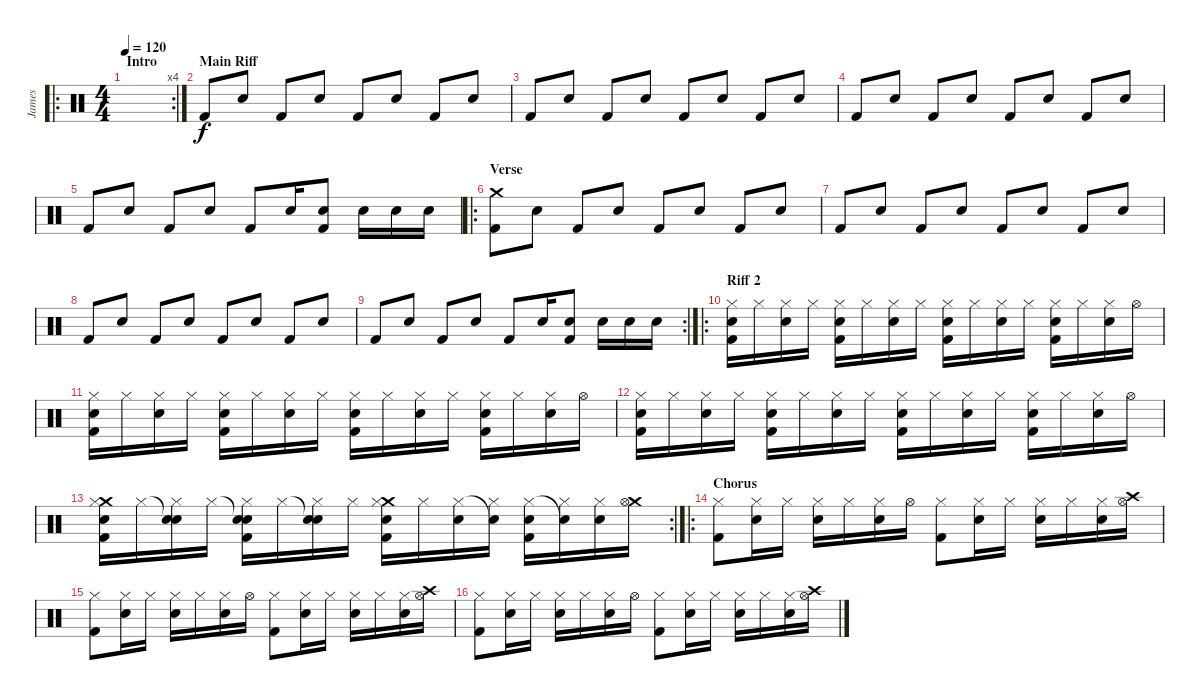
\track ("James" "James") {instrument percussion}
\staff {score}
\articulation defaults
\ro
\rc 4
\ts (4 4)
\section ("" "Intro")
\tempo 120
\clef neutral
\ks c
|
\section ("" "Main Riff")
"Kick (hit) 2".8 "Snare (hit) 2".8 "Kick (hit) 2".8 "Snare (hit) 2".8 "Kick (hit) 2".8 "Snare (hit) 2".8 "Kick (hit) 2".8 "Snare (hit) 2".8 |
"Kick (hit) 2".8 "Snare (hit) 2".8 "Kick (hit) 2".8 "Snare (hit) 2".8 "Kick (hit) 2".8 "Snare (hit) 2".8 "Kick (hit) 2".8 "Snare (hit) 2".8 |
"Kick (hit) 2".8 "Snare (hit) 2".8 "Kick (hit) 2".8 "Snare (hit) 2".8 "Kick (hit) 2".8 "Snare (hit) 2".8 "Kick (hit) 2".8 "Snare (hit) 2".8 |
"Kick (hit) 2".8 "Snare (hit) 2".8 "Kick (hit) 2".8 "Snare (hit) 2".8 "Kick (hit) 2".8 "Snare (hit) 2".16 ("Snare (hit) 2" "Kick (hit) 2").8 "Snare (hit) 2".16 "Snare (hit) 2".16 "Snare (hit) 2".16 |
\ro
\section ("" "Verse")
("Crash medium (hit)" "Kick (hit) 2").8 "Snare (hit) 2".8 "Kick (hit) 2".8 "Snare (hit) 2".8 "Kick (hit) 2".8 "Snare (hit) 2".8 "Kick (hit) 2".8 "Snare (hit) 2".8 |
"Kick (hit) 2".8 "Snare (hit) 2".8 "Kick (hit) 2".8 "Snare (hit) 2".8 "Kick (hit) 2".8 "Snare (hit) 2".8 "Kick (hit) 2".8 "Snare (hit) 2".8 |
"Kick (hit) 2".8 "Snare (hit) 2".8 "Kick (hit) 2".8 "Snare (hit) 2".8 "Kick (hit) 2".8 "Snare (hit) 2".8 "Kick (hit) 2".8 "Snare (hit) 2".8 |
\rc 2 "Kick (hit) 2".8 "Snare (hit) 2".8 "Kick (hit) 2".8 "Snare (hit) 2".8 "Kick (hit) 2".8 "Snare (hit) 2".16
("Snare (hit) 2" "Kick (hit) 2").8 "Snare (hit) 2".16 "Snare (hit) 2".16 "Snare (hit) 2".16 |
\ro
\section ("" "Riff 2")
("Hi-Hat (closed)" "Snare (hit) 2" "Kick (hit) 2").16 "Hi-Hat (closed)".16 ("Hi-Hat (closed)" "Snare (hit) 2").16 "Hi-Hat (closed)".16 ("Hi-Hat (closed)" "Snare (hit) 2" "Kick (hit) 2").16 "Hi-Hat (closed)".16 ("Hi-Hat (closed)" "Snare (hit) 2").16 "Hi-Hat (closed)".16 ("Hi-Hat (closed)" "Snare (hit) 2" "Kick (hit) 2").16 "Hi-Hat (closed)".16 ("Hi-Hat (closed)" "Snare (hit) 2").16 "Hi-Hat (closed)".16 ("Hi-Hat (closed)" "Snare (hit) 2" "Kick (hit) 2").16 "Hi-Hat (closed)".16 ("Hi-Hat (closed)" "Snare (hit) 2").16 "Hi-Hat (open)".16 |
("Hi-Hat (closed)" "Snare (hit) 2" "Kick (hit) 2").16 "Hi-Hat (closed)".16 ("Hi-Hat (closed)" "Snare (hit) 2").16 "Hi-Hat (closed)".16 ("Hi-Hat (closed)" "Snare (hit) 2" "Kick (hit) 2").16 "Hi-Hat (closed)".16 ("Hi-Hat (closed)" "Snare (hit) 2").16 "Hi-Hat (closed)".16 ("Hi-Hat (closed)" "Snare (hit) 2" "Kick (hit) 2").16 "Hi-Hat (closed)".16 ("Hi-Hat (closed)" "Snare (hit) 2").16 "Hi-Hat (closed)".16 ("Hi-Hat (closed)" "Snare (hit) 2" "Kick (hit) 2").16 "Hi-Hat (closed)".16 ("Hi-Hat (closed)" "Snare (hit) 2").16 "Hi-Hat (open)".16 |
("Hi-Hat (closed)" "Snare (hit) 2" "Kick (hit) 2").16 "Hi-Hat (closed)".16 ("Hi-Hat (closed)" "Snare (hit) 2").16 "Hi-Hat (closed)".16 ("Hi-Hat (closed)" "Snare (hit) 2" "Kick (hit) 2").16 "Hi-Hat (closed)".16 ("Hi-Hat (closed)" "Snare (hit) 2").16 "Hi-Hat (closed)".16 ("Hi-Hat (closed)" "Snare (hit) 2" "Kick (hit) 2").16 "Hi-Hat (closed)".16 ("Hi-Hat (closed)" "Snare (hit) 2").16 "Hi-Hat (closed)".16 ("Hi-Hat (closed)" "Snare (hit) 2" "Kick (hit) 2").16 "Hi-Hat (closed)".16 ("Hi-Hat (closed)" "Snare (hit) 2").16 "Hi-Hat (open)".16 |
\rc 2
("Crash medium (hit)" "Hi-Hat (closed)" "Snare (hit) 2" "Kick (hit) 2").16 "Hi-Hat (closed)".16 ("Snare (hit)"{t} "Hi-Hat (closed)" "Snare (hit) 2").16 "Hi-Hat (closed)".16 ("Snare (hit)"{t} "Hi-Hat (closed)" "Snare (hit) 2" "Kick (hit) 2").16 "Hi-Hat (closed)".16 ("Snare (hit)"{t} "Hi-Hat (closed)" "Snare (hit) 2").16 "Hi-Hat (closed)".16 ("Crash medium (hit)" "Hi-Hat (closed)" "Snare (hit) 2" "Kick (hit) 2").16 "Hi-Hat (closed)".16 ("Hi-Hat (closed)" "Snare (hit) 2").16 ("Snare (hit)"{t} "Hi-Hat (closed)").16 ("Hi-Hat (closed)" "Snare (hit) 2" "Kick (hit) 2").16 ("Snare (hit)"{t} "Hi-Hat (closed)").16 ("Hi-Hat (closed)" "Snare (hit) 2").16 ("Crash medium (hit)" "Hi-Hat (open)").16 |
\ro
\section ("" "Chorus")
("Hi-Hat (closed)" "Kick (hit) 2").8 ("Hi-Hat (closed)" "Snare (hit) 2").16 "Hi-Hat (closed)".16 ("Hi-Hat (closed)" "Snare (hit) 2").16 "Hi-Hat (closed)".16 ("Hi-Hat (closed)" "Snare (hit) 2").16 "Hi-Hat (open)".16 ("Hi-Hat (closed)" "Kick (hit) 2").8 ("Hi-Hat (closed)" "Snare (hit) 2").16 "Hi-Hat (closed)".16 ("Hi-Hat (closed)" "Snare (hit) 2").16 "Hi-Hat (closed)".16 ("Hi-Hat (closed)" "Snare (hit) 2").16 ("Crash high (hit)" "Hi-Hat (open)").16 |
("Hi-Hat (closed)" "Kick (hit) 2").8 ("Hi-Hat (closed)" "Snare (hit) 2").16 "Hi-Hat (closed)".16 ("Hi-Hat (closed)" "Snare (hit) 2").16 "Hi-Hat (closed)".16 ("Hi-Hat (closed)" "Snare (hit) 2").16 "Hi-Hat (open)".16 ("Hi-Hat (closed)" "Kick (hit) 2").8 ("Hi-Hat (closed)" "Snare (hit) 2").16 "Hi-Hat (closed)".16 ("Hi-Hat (closed)" "Snare (hit) 2").16 "Hi-Hat (closed)".16 ("Hi-Hat (closed)" "Snare (hit) 2").16 ("Crash high (hit)" "Hi-Hat (open)").16 |
("Hi-Hat (closed)" "Kick (hit) 2").8 ("Hi-Hat (closed)" "Snare (hit) 2").16 "Hi-Hat (closed)".16 ("Hi-Hat (closed)" "Snare (hit) 2").16 "Hi-Hat (closed)".16 ("Hi-Hat (closed)" "Snare (hit) 2").16 "Hi-Hat (open)".16 ("Hi-Hat (closed)" "Kick (hit) 2").8 ("Hi-Hat (closed)" "Snare (hit) 2").16 "Hi-Hat (closed)".16 ("Hi-Hat (closed)" "Snare (hit) 2").16 "Hi-Hat (closed)".16 ("Hi-Hat (closed)" "Snare (hit) 2").16 ("Crash high (hit)" "Hi-Hat (open)").16
